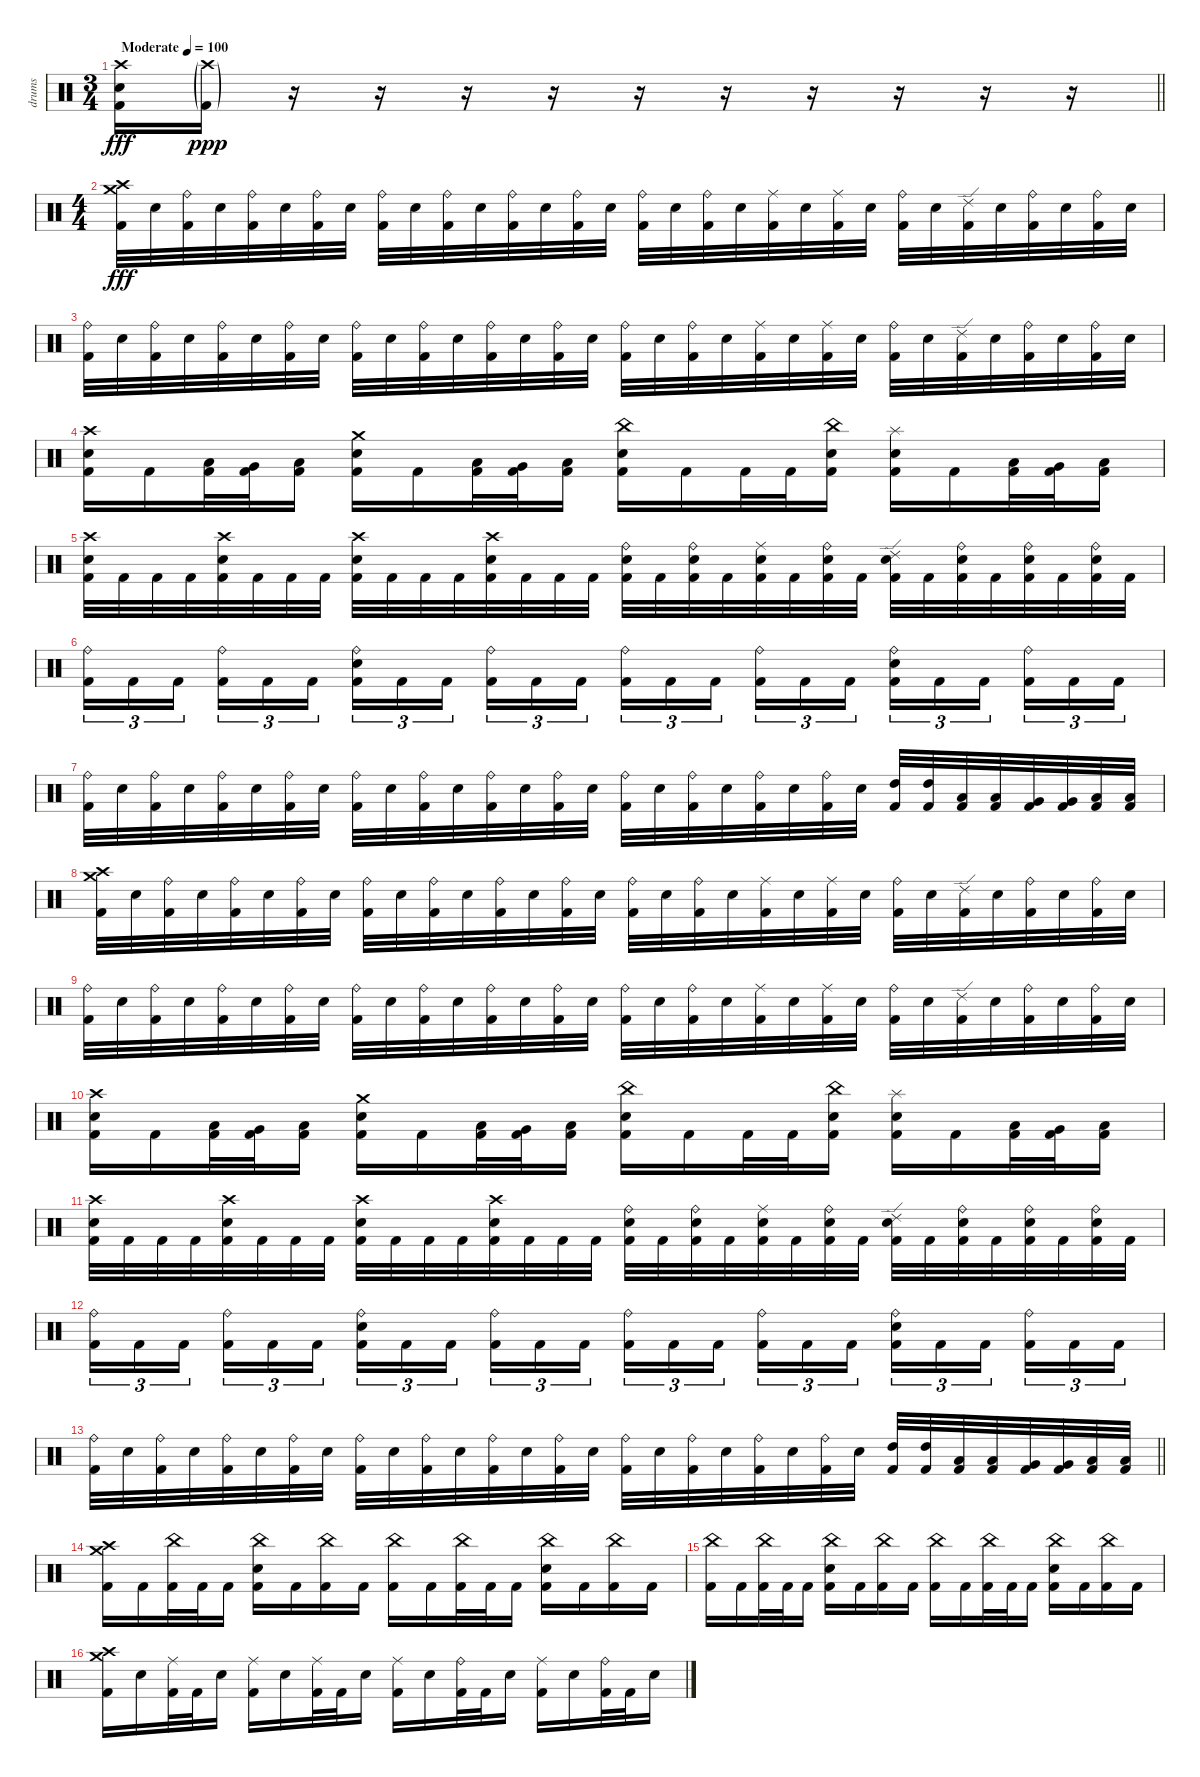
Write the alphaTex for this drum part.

\track ("drums" "drums") {instrument percussion}
\staff {score}
\articulation defaults
\ts (3 4)
\section ("" "")
\tempo (100 "Moderate")
\clef neutral
\barLineRight lightlight
\ks c
("Crash high (hit)" "Electric Snare (hit)" "Kick (hit) 2").16{dy fff} ("Crash high (hit)"{g} "Kick (hit) 2"{g}).16{dy ppp} r.16 r.16 r.16 r.16 r.16 r.16 r.16 r.16 r.16 r.16 |
\ts (4 4)
\section ("" "")
("Crash high (hit)" "Crash medium (hit)" "Kick (hit) 2").32{dy fff} "Electric Snare (hit)".32 ("Ride (bell)" "Kick (hit) 2").32 "Electric Snare (hit)".32 ("Ride (bell)" "Kick (hit) 2").32 "Electric Snare (hit)".32 ("Ride (bell)" "Kick (hit) 2").32 "Electric Snare (hit)".32 ("Ride (bell)" "Kick (hit) 2").32 "Electric Snare (hit)".32 ("Ride (bell)" "Kick (hit) 2").32 "Electric Snare (hit)".32 ("Ride (bell)" "Kick (hit) 2").32 "Electric Snare (hit)".32 ("Ride (bell)" "Kick (hit) 2").32 "Electric Snare (hit)".32 ("Ride (bell)" "Kick (hit) 2").32 "Electric Snare (hit)".32 ("Ride (bell)" "Kick (hit) 2").32 "Electric Snare (hit)".32 ("Ride (middle)" "Kick (hit) 2").32 "Electric Snare (hit)".32 ("Ride (middle)" "Kick (hit) 2").32 "Electric Snare (hit)".32 ("Ride (bell)" "Kick (hit) 2").32 "Electric Snare (hit)".32 ("Ride (edge) 2" "Kick (hit) 2").32 "Electric Snare (hit)".32 ("Ride (bell)" "Kick (hit) 2").32 "Electric Snare (hit)".32 ("Ride (bell)" "Kick (hit) 2").32 "Electric Snare (hit)".32 |
("Ride (bell)" "Kick (hit) 2").32 "Electric Snare (hit)".32 ("Ride (bell)" "Kick (hit) 2").32 "Electric Snare (hit)".32 ("Ride (bell)" "Kick (hit) 2").32 "Electric Snare (hit)".32 ("Ride (bell)" "Kick (hit) 2").32 "Electric Snare (hit)".32 ("Ride (bell)" "Kick (hit) 2").32 "Electric Snare (hit)".32 ("Ride (bell)" "Kick (hit) 2").32 "Electric Snare (hit)".32 ("Ride (bell)" "Kick (hit) 2").32 "Electric Snare (hit)".32 ("Ride (bell)" "Kick (hit) 2").32 "Electric Snare (hit)".32 ("Ride (bell)" "Kick (hit) 2").32 "Electric Snare (hit)".32 ("Ride (bell)" "Kick (hit) 2").32 "Electric Snare (hit)".32 ("Ride (middle)" "Kick (hit) 2").32 "Electric Snare (hit)".32 ("Ride (middle)" "Kick (hit) 2").32 "Electric Snare (hit)".32 ("Ride (bell)" "Kick (hit) 2").32 "Electric Snare (hit)".32 ("Ride (edge) 2" "Kick (hit) 2").32 "Electric Snare (hit)".32 ("Ride (bell)" "Kick (hit) 2").32 "Electric Snare (hit)".32 ("Ride (bell)" "Kick (hit) 2").32 "Electric Snare (hit)".32 |
("Crash high (hit)" "Electric Snare (hit)" "Kick (hit) 2").16 "Kick (hit) 2".16 ("Low Tom (hit)" "Kick (hit) 2").32 ("Very Low Tom (hit)" "Kick (hit) 2").32 ("Low Floor Tom (hit)" "Kick (hit) 2").16 ("Crash medium (hit)" "Electric Snare (hit)" "Kick (hit) 2").16 "Kick (hit) 2".16 ("Low Tom (hit)" "Kick (hit) 2").32 ("Very Low Tom (hit)" "Kick (hit) 2").32 ("Low Floor Tom (hit)" "Kick (hit) 2").16 ("China (hit)" "Electric Snare (hit)" "Kick (hit) 2").16 "Kick (hit) 2".16 "Kick (hit) 2".32 "Kick (hit) 2".32 ("China (hit)" "Electric Snare (hit)" "Kick (hit) 2").16 ("Splash (hit)" "Electric Snare (hit)" "Kick (hit) 2").16 "Kick (hit) 2".16 ("Low Tom (hit)" "Kick (hit) 2").32 ("Very Low Tom (hit)" "Kick (hit) 2").32 ("Low Floor Tom (hit)" "Kick (hit) 2").16 |
("Crash high (hit)" "Electric Snare (hit)" "Kick (hit) 2").32 "Kick (hit) 2".32 "Kick (hit) 2".32 "Kick (hit) 2".32 ("Crash high (hit)" "Electric Snare (hit)" "Kick (hit) 2").32 "Kick (hit) 2".32 "Kick (hit) 2".32 "Kick (hit) 2".32 ("Crash high (hit)" "Electric Snare (hit)" "Kick (hit) 2").32 "Kick (hit) 2".32 "Kick (hit) 2".32 "Kick (hit) 2".32 ("Crash high (hit)" "Electric Snare (hit)" "Kick (hit) 2").32 "Kick (hit) 2".32 "Kick (hit) 2".32 "Kick (hit) 2".32 ("Ride (bell)" "Electric Snare (hit)" "Kick (hit) 2").32 "Kick (hit) 2".32 ("Ride (bell)" "Electric Snare (hit)" "Kick (hit) 2").32 "Kick (hit) 2".32 ("Ride (middle)" "Electric Snare (hit)" "Kick (hit) 2").32 "Kick (hit) 2".32 ("Ride (bell)" "Electric Snare (hit)" "Kick (hit) 2").32 "Kick (hit) 2".32 ("Ride (edge) 2" "Electric Snare (hit)" "Kick (hit) 2").32 "Kick (hit) 2".32 ("Ride (bell)" "Electric Snare (hit)" "Kick (hit) 2").32 "Kick (hit) 2".32 ("Ride (bell)" "Electric Snare (hit)" "Kick (hit) 2").32 "Kick (hit) 2".32 ("Ride (bell)" "Electric Snare (hit)" "Kick (hit) 2").32 "Kick (hit) 2".32 |
("Ride (bell)" "Kick (hit) 2").16{tu (3 2)} "Kick (hit) 2".16{tu (3 2)} "Kick (hit) 2".16{tu (3 2) beam splitsecondary} ("Ride (bell)" "Kick (hit) 2").16{tu (3 2)} "Kick (hit) 2".16{tu (3 2)} "Kick (hit) 2".16{tu (3 2)} ("Ride (bell)" "Electric Snare (hit)" "Kick (hit) 2").16{tu (3 2)} "Kick (hit) 2".16{tu (3 2)} "Kick (hit) 2".16{tu (3 2) beam splitsecondary} ("Ride (bell)" "Kick (hit) 2").16{tu (3 2)} "Kick (hit) 2".16{tu (3 2)} "Kick (hit) 2".16{tu (3 2)} ("Ride (bell)" "Kick (hit) 2").16{tu (3 2)} "Kick (hit) 2".16{tu (3 2)} "Kick (hit) 2".16{tu (3 2) beam splitsecondary} ("Ride (bell)" "Kick (hit) 2").16{tu (3 2)} "Kick (hit) 2".16{tu (3 2)} "Kick (hit) 2".16{tu (3 2)} ("Ride (bell)" "Electric Snare (hit)" "Kick (hit) 2").16{tu (3 2)} "Kick (hit) 2".16{tu (3 2)} "Kick (hit) 2".16{tu (3 2) beam splitsecondary} ("Ride (bell)" "Kick (hit) 2").16{tu (3 2)} "Kick (hit) 2".16{tu (3 2)} "Kick (hit) 2".16{tu (3 2)} |
("Ride (bell)" "Kick (hit) 2").32 "Electric Snare (hit)".32 ("Ride (bell)" "Kick (hit) 2").32 "Electric Snare (hit)".32 ("Ride (bell)" "Kick (hit) 2").32 "Electric Snare (hit)".32 ("Ride (bell)" "Kick (hit) 2").32 "Electric Snare (hit)".32 ("Ride (bell)" "Kick (hit) 2").32 "Electric Snare (hit)".32 ("Ride (bell)" "Kick (hit) 2").32 "Electric Snare (hit)".32 ("Ride (bell)" "Kick (hit) 2").32 "Electric Snare (hit)".32 ("Ride (bell)" "Kick (hit) 2").32 "Electric Snare (hit)".32 ("Ride (bell)" "Kick (hit) 2").32 "Electric Snare (hit)".32 ("Ride (bell)" "Kick (hit) 2").32 "Electric Snare (hit)".32 ("Ride (bell)" "Kick (hit) 2").32 "Electric Snare (hit)".32 ("Ride (bell)" "Kick (hit) 2").32 "Electric Snare (hit)".32 ("High Tom (hit)" "Kick (hit) 2").32 ("High Tom (hit)" "Kick (hit) 2").32 ("Low Tom (hit)" "Kick (hit) 2").32 ("Low Tom (hit)" "Kick (hit) 2").32 ("Very Low Tom (hit)" "Kick (hit) 2").32 ("Very Low Tom (hit)" "Kick (hit) 2").32 ("Low Floor Tom (hit)" "Kick (hit) 2").32 ("Low Floor Tom (hit)" "Kick (hit) 2").32 |
("Crash high (hit)" "Crash medium (hit)" "Kick (hit) 2").32 "Electric Snare (hit)".32 ("Ride (bell)" "Kick (hit) 2").32 "Electric Snare (hit)".32 ("Ride (bell)" "Kick (hit) 2").32 "Electric Snare (hit)".32 ("Ride (bell)" "Kick (hit) 2").32 "Electric Snare (hit)".32 ("Ride (bell)" "Kick (hit) 2").32 "Electric Snare (hit)".32 ("Ride (bell)" "Kick (hit) 2").32 "Electric Snare (hit)".32 ("Ride (bell)" "Kick (hit) 2").32 "Electric Snare (hit)".32 ("Ride (bell)" "Kick (hit) 2").32 "Electric Snare (hit)".32 ("Ride (bell)" "Kick (hit) 2").32 "Electric Snare (hit)".32 ("Ride (bell)" "Kick (hit) 2").32 "Electric Snare (hit)".32 ("Ride (middle)" "Kick (hit) 2").32 "Electric Snare (hit)".32 ("Ride (middle)" "Kick (hit) 2").32 "Electric Snare (hit)".32 ("Ride (bell)" "Kick (hit) 2").32 "Electric Snare (hit)".32 ("Ride (edge) 2" "Kick (hit) 2").32 "Electric Snare (hit)".32 ("Ride (bell)" "Kick (hit) 2").32 "Electric Snare (hit)".32 ("Ride (bell)" "Kick (hit) 2").32 "Electric Snare (hit)".32 |
("Ride (bell)" "Kick (hit) 2").32 "Electric Snare (hit)".32 ("Ride (bell)" "Kick (hit) 2").32 "Electric Snare (hit)".32 ("Ride (bell)" "Kick (hit) 2").32 "Electric Snare (hit)".32 ("Ride (bell)" "Kick (hit) 2").32 "Electric Snare (hit)".32 ("Ride (bell)" "Kick (hit) 2").32 "Electric Snare (hit)".32 ("Ride (bell)" "Kick (hit) 2").32 "Electric Snare (hit)".32 ("Ride (bell)" "Kick (hit) 2").32 "Electric Snare (hit)".32 ("Ride (bell)" "Kick (hit) 2").32 "Electric Snare (hit)".32 ("Ride (bell)" "Kick (hit) 2").32 "Electric Snare (hit)".32 ("Ride (bell)" "Kick (hit) 2").32 "Electric Snare (hit)".32 ("Ride (middle)" "Kick (hit) 2").32 "Electric Snare (hit)".32 ("Ride (middle)" "Kick (hit) 2").32 "Electric Snare (hit)".32 ("Ride (bell)" "Kick (hit) 2").32 "Electric Snare (hit)".32 ("Ride (edge) 2" "Kick (hit) 2").32 "Electric Snare (hit)".32 ("Ride (bell)" "Kick (hit) 2").32 "Electric Snare (hit)".32 ("Ride (bell)" "Kick (hit) 2").32 "Electric Snare (hit)".32 |
("Crash high (hit)" "Electric Snare (hit)" "Kick (hit) 2").16 "Kick (hit) 2".16 ("Low Tom (hit)" "Kick (hit) 2").32 ("Very Low Tom (hit)" "Kick (hit) 2").32 ("Low Floor Tom (hit)" "Kick (hit) 2").16 ("Crash medium (hit)" "Electric Snare (hit)" "Kick (hit) 2").16 "Kick (hit) 2".16 ("Low Tom (hit)" "Kick (hit) 2").32 ("Very Low Tom (hit)" "Kick (hit) 2").32 ("Low Floor Tom (hit)" "Kick (hit) 2").16 ("China (hit)" "Electric Snare (hit)" "Kick (hit) 2").16 "Kick (hit) 2".16 "Kick (hit) 2".32 "Kick (hit) 2".32 ("China (hit)" "Electric Snare (hit)" "Kick (hit) 2").16 ("Splash (hit)" "Electric Snare (hit)" "Kick (hit) 2").16 "Kick (hit) 2".16 ("Low Tom (hit)" "Kick (hit) 2").32 ("Very Low Tom (hit)" "Kick (hit) 2").32 ("Low Floor Tom (hit)" "Kick (hit) 2").16 |
("Crash high (hit)" "Electric Snare (hit)" "Kick (hit) 2").32 "Kick (hit) 2".32 "Kick (hit) 2".32 "Kick (hit) 2".32 ("Crash high (hit)" "Electric Snare (hit)" "Kick (hit) 2").32 "Kick (hit) 2".32 "Kick (hit) 2".32 "Kick (hit) 2".32 ("Crash high (hit)" "Electric Snare (hit)" "Kick (hit) 2").32 "Kick (hit) 2".32 "Kick (hit) 2".32 "Kick (hit) 2".32 ("Crash high (hit)" "Electric Snare (hit)" "Kick (hit) 2").32 "Kick (hit) 2".32 "Kick (hit) 2".32 "Kick (hit) 2".32 ("Ride (bell)" "Electric Snare (hit)" "Kick (hit) 2").32 "Kick (hit) 2".32 ("Ride (bell)" "Electric Snare (hit)" "Kick (hit) 2").32 "Kick (hit) 2".32 ("Ride (middle)" "Electric Snare (hit)" "Kick (hit) 2").32 "Kick (hit) 2".32 ("Ride (bell)" "Electric Snare (hit)" "Kick (hit) 2").32 "Kick (hit) 2".32 ("Ride (edge) 2" "Electric Snare (hit)" "Kick (hit) 2").32 "Kick (hit) 2".32 ("Ride (bell)" "Electric Snare (hit)" "Kick (hit) 2").32 "Kick (hit) 2".32 ("Ride (bell)" "Electric Snare (hit)" "Kick (hit) 2").32 "Kick (hit) 2".32 ("Ride (bell)" "Electric Snare (hit)" "Kick (hit) 2").32 "Kick (hit) 2".32 |
("Ride (bell)" "Kick (hit) 2").16{tu (3 2)} "Kick (hit) 2".16{tu (3 2)} "Kick (hit) 2".16{tu (3 2) beam splitsecondary} ("Ride (bell)" "Kick (hit) 2").16{tu (3 2)} "Kick (hit) 2".16{tu (3 2)} "Kick (hit) 2".16{tu (3 2)} ("Ride (bell)" "Electric Snare (hit)" "Kick (hit) 2").16{tu (3 2)} "Kick (hit) 2".16{tu (3 2)} "Kick (hit) 2".16{tu (3 2) beam splitsecondary} ("Ride (bell)" "Kick (hit) 2").16{tu (3 2)} "Kick (hit) 2".16{tu (3 2)} "Kick (hit) 2".16{tu (3 2)} ("Ride (bell)" "Kick (hit) 2").16{tu (3 2)} "Kick (hit) 2".16{tu (3 2)} "Kick (hit) 2".16{tu (3 2) beam splitsecondary} ("Ride (bell)" "Kick (hit) 2").16{tu (3 2)} "Kick (hit) 2".16{tu (3 2)} "Kick (hit) 2".16{tu (3 2)} ("Ride (bell)" "Electric Snare (hit)" "Kick (hit) 2").16{tu (3 2)} "Kick (hit) 2".16{tu (3 2)} "Kick (hit) 2".16{tu (3 2) beam splitsecondary} ("Ride (bell)" "Kick (hit) 2").16{tu (3 2)} "Kick (hit) 2".16{tu (3 2)} "Kick (hit) 2".16{tu (3 2)} |
\barLineRight lightlight
("Ride (bell)" "Kick (hit) 2").32 "Electric Snare (hit)".32 ("Ride (bell)" "Kick (hit) 2").32 "Electric Snare (hit)".32 ("Ride (bell)" "Kick (hit) 2").32 "Electric Snare (hit)".32 ("Ride (bell)" "Kick (hit) 2").32 "Electric Snare (hit)".32 ("Ride (bell)" "Kick (hit) 2").32 "Electric Snare (hit)".32 ("Ride (bell)" "Kick (hit) 2").32 "Electric Snare (hit)".32 ("Ride (bell)" "Kick (hit) 2").32 "Electric Snare (hit)".32 ("Ride (bell)" "Kick (hit) 2").32 "Electric Snare (hit)".32 ("Ride (bell)" "Kick (hit) 2").32 "Electric Snare (hit)".32 ("Ride (bell)" "Kick (hit) 2").32 "Electric Snare (hit)".32 ("Ride (bell)" "Kick (hit) 2").32 "Electric Snare (hit)".32 ("Ride (bell)" "Kick (hit) 2").32 "Electric Snare (hit)".32 ("High Tom (hit)" "Kick (hit) 2").32 ("High Tom (hit)" "Kick (hit) 2").32 ("Low Tom (hit)" "Kick (hit) 2").32 ("Low Tom (hit)" "Kick (hit) 2").32 ("Very Low Tom (hit)" "Kick (hit) 2").32 ("Very Low Tom (hit)" "Kick (hit) 2").32 ("Low Floor Tom (hit)" "Kick (hit) 2").32 ("Low Floor Tom (hit)" "Kick (hit) 2").32 |
\section ("" "")
("Crash high (hit)" "Crash medium (hit)" "Kick (hit) 2").16 "Kick (hit) 2".16 ("China (hit)" "Kick (hit) 2").32 "Kick (hit) 2".32 "Kick (hit) 2".16 ("China (hit)" "Electric Snare (hit)" "Kick (hit) 2").16 "Kick (hit) 2".16 ("China (hit)" "Kick (hit) 2").16 "Kick (hit) 2".16 ("China (hit)" "Kick (hit) 2").16 "Kick (hit) 2".16 ("China (hit)" "Kick (hit) 2").32 "Kick (hit) 2".32 "Kick (hit) 2".16 ("China (hit)" "Electric Snare (hit)" "Kick (hit) 2").16 "Kick (hit) 2".16 ("China (hit)" "Kick (hit) 2").16 "Kick (hit) 2".16 |
("China (hit)" "Kick (hit) 2").16 "Kick (hit) 2".16 ("China (hit)" "Kick (hit) 2").32 "Kick (hit) 2".32 "Kick (hit) 2".16 ("China (hit)" "Electric Snare (hit)" "Kick (hit) 2").16 "Kick (hit) 2".16 ("China (hit)" "Kick (hit) 2").16 "Kick (hit) 2".16 ("China (hit)" "Kick (hit) 2").16 "Kick (hit) 2".16 ("China (hit)" "Kick (hit) 2").32 "Kick (hit) 2".32 "Kick (hit) 2".16 ("China (hit)" "Electric Snare (hit)" "Kick (hit) 2").16 "Kick (hit) 2".16 ("China (hit)" "Kick (hit) 2").16 "Kick (hit) 2".16 |
("Crash high (hit)" "Crash medium (hit)" "Kick (hit) 2").16 "Electric Snare (hit)".16 ("Ride (middle)" "Kick (hit) 2").32 "Kick (hit) 2".32 "Electric Snare (hit)".16 ("Ride (middle)" "Kick (hit) 2").16 "Electric Snare (hit)".16 ("Ride (middle)" "Kick (hit) 2").32 "Kick (hit) 2".32 "Electric Snare (hit)".16 ("Ride (middle)" "Kick (hit) 2").16 "Electric Snare (hit)".16 ("Ride (bell)" "Kick (hit) 2").32 "Kick (hit) 2".32 "Electric Snare (hit)".16 ("Ride (middle)" "Kick (hit) 2").16 "Electric Snare (hit)".16 ("Ride (bell)" "Kick (hit) 2").32 "Kick (hit) 2".32 "Electric Snare (hit)".16
